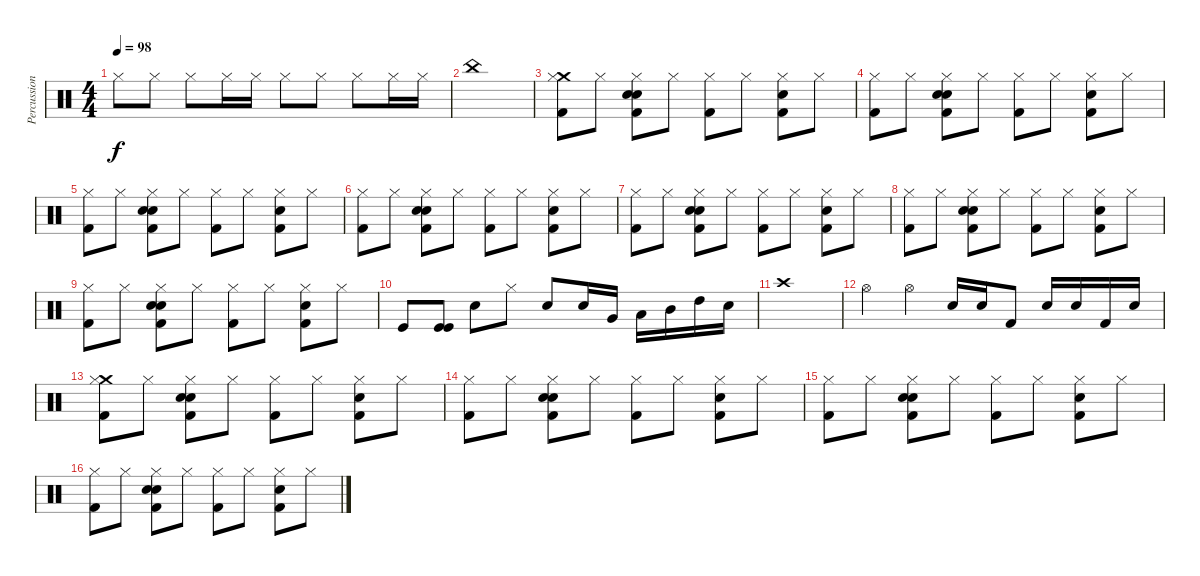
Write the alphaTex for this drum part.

\track ("Percussion" "Percussion") {instrument percussion}
\staff {score}
\articulation defaults
\ts (4 4)
\tempo 98
\clef neutral
\ks c "Hi-Hat (closed)".8{dy f} "Hi-Hat (closed)".8 "Hi-Hat (closed)".8 "Hi-Hat (closed)".16 "Hi-Hat (closed)".16 "Hi-Hat (closed)".8 "Hi-Hat (closed)".8 "Hi-Hat (closed)".8 "Hi-Hat (closed)".16 "Hi-Hat (closed)".16
|
"China (hit)".1 |
("Kick (hit) 2" "Crash medium (hit)" "Hi-Hat (closed)").8 "Hi-Hat (closed)".8 ("Hi-Hat (closed)" "Snare (hit)" "Snare (hit) 2" "Kick (hit) 2").8 "Hi-Hat (closed)".8 ("Hi-Hat (closed)" "Kick (hit) 2").8 "Hi-Hat (closed)".8 ("Hi-Hat (closed)" "Snare (hit) 2" "Kick (hit) 2").8 "Hi-Hat (closed)".8 |
("Kick (hit) 2" "Hi-Hat (closed)").8 "Hi-Hat (closed)".8 ("Hi-Hat (closed)" "Snare (hit)" "Snare (hit) 2" "Kick (hit) 2").8 "Hi-Hat (closed)".8 ("Hi-Hat (closed)" "Kick (hit) 2").8 "Hi-Hat (closed)".8 ("Hi-Hat (closed)" "Snare (hit) 2" "Kick (hit) 2").8 "Hi-Hat (closed)".8 |
("Kick (hit) 2" "Hi-Hat (closed)").8 "Hi-Hat (closed)".8 ("Hi-Hat (closed)" "Snare (hit)" "Snare (hit) 2" "Kick (hit) 2").8 "Hi-Hat (closed)".8 ("Hi-Hat (closed)" "Kick (hit) 2").8 "Hi-Hat (closed)".8 ("Hi-Hat (closed)" "Snare (hit) 2" "Kick (hit) 2").8 "Hi-Hat (closed)".8 |
("Kick (hit) 2" "Hi-Hat (closed)").8 "Hi-Hat (closed)".8 ("Hi-Hat (closed)" "Snare (hit)" "Snare (hit) 2" "Kick (hit) 2").8 "Hi-Hat (closed)".8 ("Hi-Hat (closed)" "Kick (hit) 2").8 "Hi-Hat (closed)".8 ("Hi-Hat (closed)" "Snare (hit) 2" "Kick (hit) 2").8 "Hi-Hat (closed)".8 |
("Kick (hit) 2" "Hi-Hat (closed)").8 "Hi-Hat (closed)".8 ("Hi-Hat (closed)" "Snare (hit)" "Snare (hit) 2" "Kick (hit) 2").8 "Hi-Hat (closed)".8 ("Hi-Hat (closed)" "Kick (hit) 2").8 "Hi-Hat (closed)".8 ("Hi-Hat (closed)" "Snare (hit) 2" "Kick (hit) 2").8 "Hi-Hat (closed)".8 |
("Kick (hit) 2" "Hi-Hat (closed)").8 "Hi-Hat (closed)".8 ("Hi-Hat (closed)" "Snare (hit)" "Snare (hit) 2" "Kick (hit) 2").8 "Hi-Hat (closed)".8 ("Hi-Hat (closed)" "Kick (hit) 2").8 "Hi-Hat (closed)".8 ("Hi-Hat (closed)" "Snare (hit) 2" "Kick (hit) 2").8 "Hi-Hat (closed)".8 |
("Kick (hit) 2" "Hi-Hat (closed)").8 "Hi-Hat (closed)".8 ("Hi-Hat (closed)" "Snare (hit)" "Snare (hit) 2" "Kick (hit) 2").8 "Hi-Hat (closed)".8 ("Hi-Hat (closed)" "Kick (hit) 2").8 "Hi-Hat (closed)".8 ("Hi-Hat (closed)" "Snare (hit) 2" "Kick (hit) 2").8 "Hi-Hat (closed)".8 |
"Kick (hit)".8 ("Kick (hit)" "Kick (hit)").8 "Snare (hit) 2".8 "Hi-Hat (closed)".8 "Snare (hit) 2".8 "Snare (hit) 2".16 "Very Low Tom (hit)".16 "Low Tom (hit)".16 "Mid Tom (hit)".16 "High Tom (hit)".16 "Electric Snare (hit)".16 |
"Crash high (hit)".1 |
"Hi-Hat (open)".4 "Hi-Hat (open)".4 "Snare (hit) 2".16 "Snare (hit) 2".16 "Kick (hit) 2".8 "Snare (hit) 2".16 "Snare (hit) 2".16 "Kick (hit) 2".16 "Snare (hit) 2".16 |
("Kick (hit) 2" "Crash medium (hit)" "Hi-Hat (closed)").8 "Hi-Hat (closed)".8 ("Hi-Hat (closed)" "Snare (hit)" "Snare (hit) 2" "Kick (hit) 2").8 "Hi-Hat (closed)".8 ("Hi-Hat (closed)" "Kick (hit) 2").8 "Hi-Hat (closed)".8 ("Hi-Hat (closed)" "Snare (hit) 2" "Kick (hit) 2").8 "Hi-Hat (closed)".8 |
("Kick (hit) 2" "Hi-Hat (closed)").8 "Hi-Hat (closed)".8 ("Hi-Hat (closed)" "Snare (hit)" "Snare (hit) 2" "Kick (hit) 2").8 "Hi-Hat (closed)".8 ("Hi-Hat (closed)" "Kick (hit) 2").8 "Hi-Hat (closed)".8 ("Hi-Hat (closed)" "Snare (hit) 2" "Kick (hit) 2").8 "Hi-Hat (closed)".8 |
("Kick (hit) 2" "Hi-Hat (closed)").8 "Hi-Hat (closed)".8 ("Hi-Hat (closed)" "Snare (hit)" "Snare (hit) 2" "Kick (hit) 2").8 "Hi-Hat (closed)".8 ("Hi-Hat (closed)" "Kick (hit) 2").8 "Hi-Hat (closed)".8 ("Hi-Hat (closed)" "Snare (hit) 2" "Kick (hit) 2").8 "Hi-Hat (closed)".8 |
("Kick (hit) 2" "Hi-Hat (closed)").8 "Hi-Hat (closed)".8 ("Hi-Hat (closed)" "Snare (hit)" "Snare (hit) 2" "Kick (hit) 2").8 "Hi-Hat (closed)".8 ("Hi-Hat (closed)" "Kick (hit) 2").8 "Hi-Hat (closed)".8 ("Hi-Hat (closed)" "Snare (hit) 2" "Kick (hit) 2").8 "Hi-Hat (closed)".8
